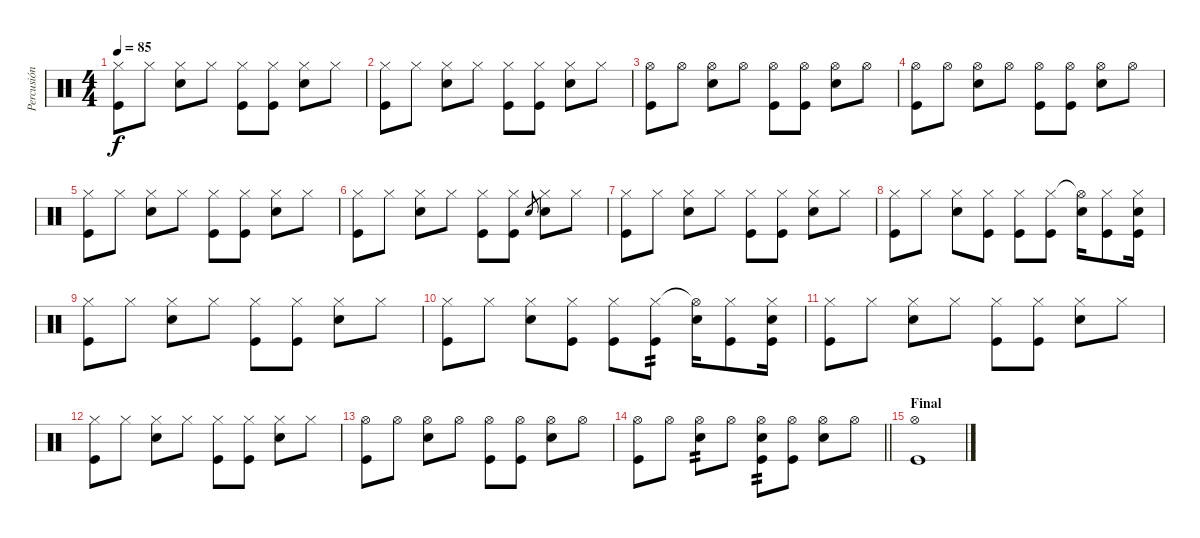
\track ("Percusión" "Percusión") {instrument percussion}
\staff {score}
\articulation defaults
\ts (4 4)
\tempo 85
\clef neutral
\ks c
("Hi-Hat (closed)" "Kick (hit)").8{dy f} "Hi-Hat (closed)".8 ("Hi-Hat (closed)" "Electric Snare (hit)").8 "Hi-Hat (closed)".8 ("Hi-Hat (closed)" "Kick (hit)").8 ("Hi-Hat (closed)" "Kick (hit)").8 ("Hi-Hat (closed)" "Electric Snare (hit)").8 "Hi-Hat (closed)".8 |
("Hi-Hat (closed)" "Kick (hit)").8 "Hi-Hat (closed)".8 ("Hi-Hat (closed)" "Electric Snare (hit)").8 "Hi-Hat (closed)".8 ("Hi-Hat (closed)" "Kick (hit)").8 ("Hi-Hat (closed)" "Kick (hit)").8 ("Hi-Hat (closed)" "Electric Snare (hit)").8 "Hi-Hat (closed)".8 |
("Hi-Hat (open)" "Kick (hit)").8 "Hi-Hat (open)".8 ("Hi-Hat (open)" "Electric Snare (hit)").8 "Hi-Hat (open)".8 ("Hi-Hat (open)" "Kick (hit)").8 ("Hi-Hat (open)" "Kick (hit)").8 ("Hi-Hat (open)" "Electric Snare (hit)").8 "Hi-Hat (open)".8 |
("Hi-Hat (open)" "Kick (hit)").8 "Hi-Hat (open)".8 ("Hi-Hat (open)" "Electric Snare (hit)").8 "Hi-Hat (open)".8 ("Hi-Hat (open)" "Kick (hit)").8 ("Hi-Hat (open)" "Kick (hit)").8 ("Hi-Hat (open)" "Electric Snare (hit)").8 "Hi-Hat (open)".8 |
("Hi-Hat (closed)" "Kick (hit)").8 "Hi-Hat (closed)".8 ("Hi-Hat (closed)" "Electric Snare (hit)").8 "Hi-Hat (closed)".8 ("Hi-Hat (closed)" "Kick (hit)").8 ("Hi-Hat (closed)" "Kick (hit)").8 ("Hi-Hat (closed)" "Electric Snare (hit)").8 "Hi-Hat (closed)".8 |
("Hi-Hat (closed)" "Kick (hit)").8 "Hi-Hat (closed)".8 ("Hi-Hat (closed)" "Electric Snare (hit)").8 "Hi-Hat (closed)".8 ("Hi-Hat (closed)" "Kick (hit)").8 ("Hi-Hat (closed)" "Kick (hit)").8 "Electric Snare (hit)".8{gr} ("Hi-Hat (closed)" "Electric Snare (hit)").8 "Hi-Hat (closed)".8 |
("Hi-Hat (closed)" "Kick (hit)").8 "Hi-Hat (closed)".8 ("Hi-Hat (closed)" "Electric Snare (hit)").8 "Hi-Hat (closed)".8 ("Hi-Hat (closed)" "Kick (hit)").8 ("Hi-Hat (closed)" "Kick (hit)").8 ("Hi-Hat (closed)" "Electric Snare (hit)").8 "Hi-Hat (closed)".8 |
("Hi-Hat (closed)" "Kick (hit)").8 "Hi-Hat (closed)".8 ("Hi-Hat (closed)" "Electric Snare (hit)").8 ("Hi-Hat (closed)" "Kick (hit)").8 ("Hi-Hat (closed)" "Kick (hit)").8 ("Hi-Hat (closed)" "Kick (hit)").8 ("Hi-Hat (open)"{t} "Electric Snare (hit)").16 ("Hi-Hat (closed)" "Kick (hit)").8 ("Hi-Hat (closed)" "Electric Snare (hit)" "Kick (hit)").16 |
("Hi-Hat (closed)" "Kick (hit)").8 "Hi-Hat (closed)".8 ("Hi-Hat (closed)" "Electric Snare (hit)").8 "Hi-Hat (closed)".8 ("Hi-Hat (closed)" "Kick (hit)").8 ("Hi-Hat (closed)" "Kick (hit)").8 ("Hi-Hat (closed)" "Electric Snare (hit)").8 "Hi-Hat (closed)".8 |
("Hi-Hat (closed)" "Kick (hit)").8 "Hi-Hat (closed)".8 ("Hi-Hat (closed)" "Electric Snare (hit)").8 ("Hi-Hat (closed)" "Kick (hit)").8 ("Hi-Hat (closed)" "Kick (hit)").8 ("Hi-Hat (closed)" "Kick (hit)").8{tp 2} ("Hi-Hat (open)"{t} "Electric Snare (hit)").16 ("Hi-Hat (closed)" "Kick (hit)").8 ("Hi-Hat (closed)" "Electric Snare (hit)" "Kick (hit)").16 |
("Hi-Hat (closed)" "Kick (hit)").8 "Hi-Hat (closed)".8 ("Hi-Hat (closed)" "Electric Snare (hit)").8 "Hi-Hat (closed)".8 ("Hi-Hat (closed)" "Kick (hit)").8 ("Hi-Hat (closed)" "Kick (hit)").8 ("Hi-Hat (closed)" "Electric Snare (hit)").8 "Hi-Hat (closed)".8 |
("Hi-Hat (closed)" "Kick (hit)").8 "Hi-Hat (closed)".8 ("Hi-Hat (closed)" "Electric Snare (hit)").8 "Hi-Hat (closed)".8 ("Hi-Hat (closed)" "Kick (hit)").8 ("Hi-Hat (closed)" "Kick (hit)").8 ("Hi-Hat (closed)" "Electric Snare (hit)").8 "Hi-Hat (closed)".8 |
("Hi-Hat (open)" "Kick (hit)").8 "Hi-Hat (open)".8 ("Hi-Hat (open)" "Electric Snare (hit)").8 "Hi-Hat (open)".8 ("Hi-Hat (open)" "Kick (hit)").8 ("Hi-Hat (open)" "Kick (hit)").8 ("Hi-Hat (open)" "Electric Snare (hit)").8 "Hi-Hat (open)".8 |
\barLineRight lightlight
("Hi-Hat (open)" "Kick (hit)").8 "Hi-Hat (open)".8 ("Hi-Hat (open)" "Electric Snare (hit)").8{tp 2} "Hi-Hat (open)".8 ("Hi-Hat (open)" "Electric Snare (hit)" "Kick (hit)").8{tp 2} ("Hi-Hat (open)" "Kick (hit)").8 ("Hi-Hat (open)" "Electric Snare (hit)").8 "Hi-Hat (open)".8 |
\section ("" "Final")
("Hi-Hat (open)" "Kick (hit)").1
